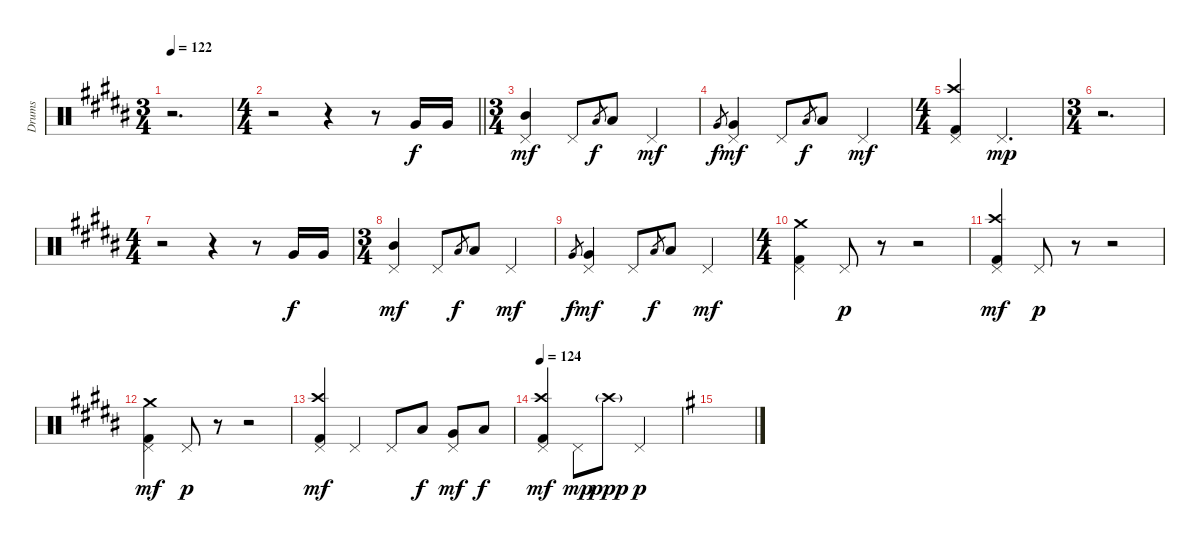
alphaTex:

\track ("Drums" "Drums") {instrument percussion}
\staff {score}
\articulation defaults
\ts (3 4)
\tempo 122
\clef neutral
\ks b
r.2{d dy mp} |
\ts (4 4)
\barLineRight lightlight
r.2 r.4 r.8 "Very Low Tom (hit)".16{dy f} "Very Low Tom (hit)".16 |
\ts (3 4)
("Mid Tom (hit)" "Pedal Hi-Hat (hit)").4{dy mf} "Pedal Hi-Hat (hit)".8 "Low Tom (hit)".8{gr dy f} "Low Tom (hit)".8 "Pedal Hi-Hat (hit)".4{dy mf} |
"Very Low Tom (hit)".8{gr dy f} ("Very Low Tom (hit)" "Pedal Hi-Hat (hit)").4{dy mf} "Pedal Hi-Hat (hit)".8 "Low Floor Tom (hit)".8{gr dy f} "Low Floor Tom (hit)".8 "Pedal Hi-Hat (hit)".4{dy mf} |
\ts (4 4)
("Crash high (hit)" "Pedal Hi-Hat (hit)" "Kick (hit) 2").4 "Pedal Hi-Hat (hit)".2{d dy mp} |
\ts (3 4)
r.2{d} |
\ts (4 4)
r.2 r.4 r.8 "Very Low Tom (hit)".16{dy f} "Very Low Tom (hit)".16 |
\ts (3 4)
("Mid Tom (hit)" "Pedal Hi-Hat (hit)").4{dy mf} "Pedal Hi-Hat (hit)".8 "Low Tom (hit)".8{gr dy f} "Low Tom (hit)".8 "Pedal Hi-Hat (hit)".4{dy mf} |
"Very Low Tom (hit)".8{gr dy f} ("Very Low Tom (hit)" "Pedal Hi-Hat (hit)").4{dy mf} "Pedal Hi-Hat (hit)".8 "Low Floor Tom (hit)".8{gr dy f} "Low Floor Tom (hit)".8 "Pedal Hi-Hat (hit)".4{dy mf} |
\ts (4 4)
("Crash medium (hit)" "Pedal Hi-Hat (hit)" "Kick (hit) 2").4 "Pedal Hi-Hat (hit)".8{dy p} r.8 r.2 |
("Crash high (hit)" "Pedal Hi-Hat (hit)" "Kick (hit) 2").4{dy mf} "Pedal Hi-Hat (hit)".8{dy p} r.8 r.2 |
("Crash medium (hit)" "Pedal Hi-Hat (hit)" "Kick (hit) 2").4{dy mf} "Pedal Hi-Hat (hit)".8{dy p} r.8 r.2 |
("Crash high (hit)" "Pedal Hi-Hat (hit)" "Kick (hit) 2").4{dy mf} "Pedal Hi-Hat (hit)".4 "Pedal Hi-Hat (hit)".8 "Low Tom (hit)".8{dy f} ("Very Low Tom (hit)" "Pedal Hi-Hat (hit)").8{dy mf} "Low Floor Tom (hit)".8{dy f} |
\tempo 124
("Crash high (hit)" "Pedal Hi-Hat (hit)" "Kick (hit) 2").4{dy mf} "Pedal Hi-Hat (hit)".8{dy mp} "Crash high (hit)"{g}.8{dy ppp} "Pedal Hi-Hat (hit)".2{dy p} |
\ks g
